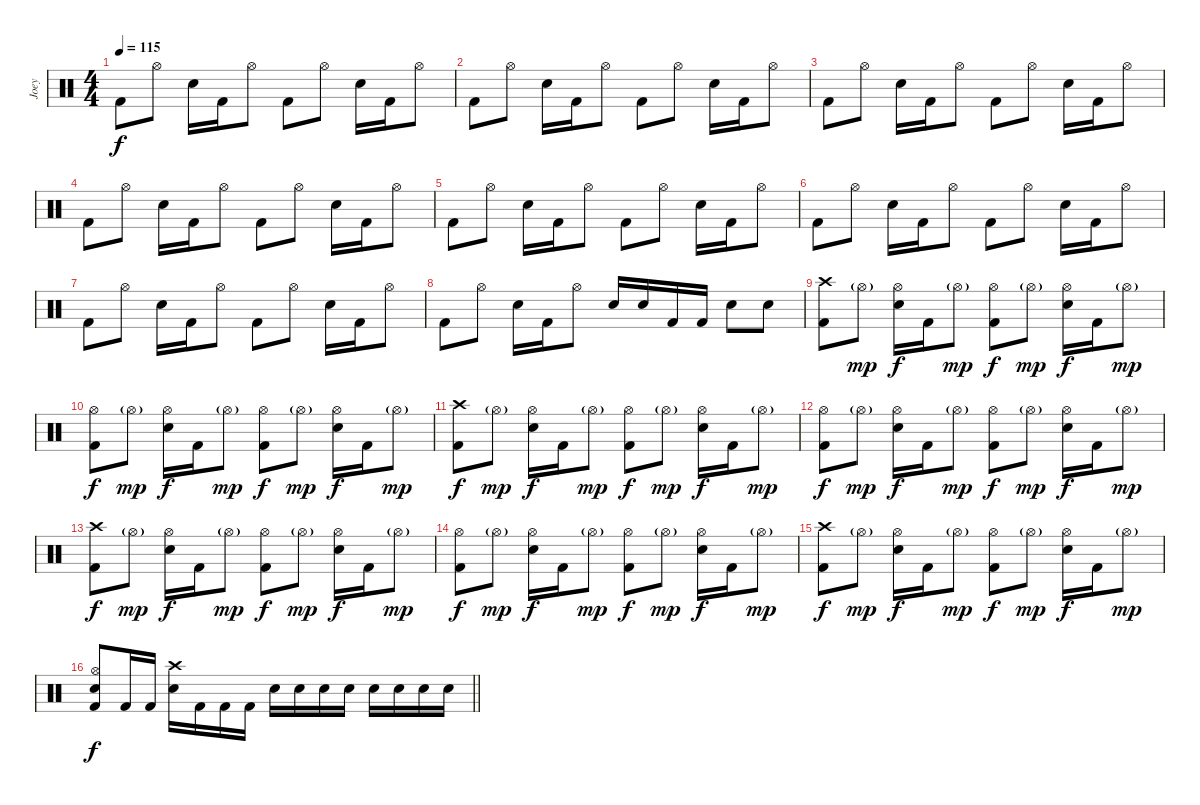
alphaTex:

\track ("Joey" "Joey") {instrument percussion}
\staff {score}
\articulation defaults
\ts (4 4)
\tempo 115
\clef neutral
\ks c "Kick (hit) 2".8{dy f} "Hi-Hat (open)".8 "Electric Snare (hit)".16 "Kick (hit) 2".16 "Hi-Hat (open)".8 "Kick (hit) 2".8 "Hi-Hat (open)".8 "Electric Snare (hit)".16 "Kick (hit) 2".16 "Hi-Hat (open)".8
|
"Kick (hit) 2".8 "Hi-Hat (open)".8 "Electric Snare (hit)".16 "Kick (hit) 2".16 "Hi-Hat (open)".8 "Kick (hit) 2".8 "Hi-Hat (open)".8 "Electric Snare (hit)".16 "Kick (hit) 2".16 "Hi-Hat (open)".8 |
"Kick (hit) 2".8 "Hi-Hat (open)".8 "Electric Snare (hit)".16 "Kick (hit) 2".16 "Hi-Hat (open)".8 "Kick (hit) 2".8 "Hi-Hat (open)".8 "Electric Snare (hit)".16 "Kick (hit) 2".16 "Hi-Hat (open)".8 |
"Kick (hit) 2".8 "Hi-Hat (open)".8 "Electric Snare (hit)".16 "Kick (hit) 2".16 "Hi-Hat (open)".8 "Kick (hit) 2".8 "Hi-Hat (open)".8 "Electric Snare (hit)".16 "Kick (hit) 2".16 "Hi-Hat (open)".8 |
"Kick (hit) 2".8 "Hi-Hat (open)".8 "Electric Snare (hit)".16 "Kick (hit) 2".16 "Hi-Hat (open)".8 "Kick (hit) 2".8 "Hi-Hat (open)".8 "Electric Snare (hit)".16 "Kick (hit) 2".16 "Hi-Hat (open)".8 |
"Kick (hit) 2".8 "Hi-Hat (open)".8 "Electric Snare (hit)".16 "Kick (hit) 2".16 "Hi-Hat (open)".8 "Kick (hit) 2".8 "Hi-Hat (open)".8 "Electric Snare (hit)".16 "Kick (hit) 2".16 "Hi-Hat (open)".8 |
"Kick (hit) 2".8 "Hi-Hat (open)".8 "Electric Snare (hit)".16 "Kick (hit) 2".16 "Hi-Hat (open)".8 "Kick (hit) 2".8 "Hi-Hat (open)".8 "Electric Snare (hit)".16 "Kick (hit) 2".16 "Hi-Hat (open)".8 |
"Kick (hit) 2".8 "Hi-Hat (open)".8 "Electric Snare (hit)".16 "Kick (hit) 2".16 "Hi-Hat (open)".8 "Electric Snare (hit)".16 "Electric Snare (hit)".16 "Kick (hit) 2".16 "Kick (hit) 2".16 "Electric Snare (hit)".8 "Electric Snare (hit)".8 |
("Crash high (hit)" "Kick (hit) 2").8 "Hi-Hat (open)"{g}.8{dy mp} ("Hi-Hat (open)" "Electric Snare (hit)").16{dy f} "Kick (hit) 2".16 "Hi-Hat (open)"{g}.8{dy mp} ("Hi-Hat (open)" "Kick (hit) 2").8{dy f} "Hi-Hat (open)"{g}.8{dy mp} ("Hi-Hat (open)" "Electric Snare (hit)").16{dy f} "Kick (hit) 2".16 "Hi-Hat (open)"{g}.8{dy mp} |
("Hi-Hat (open)" "Kick (hit) 2").8{dy f} "Hi-Hat (open)"{g}.8{dy mp} ("Hi-Hat (open)" "Electric Snare (hit)").16{dy f} "Kick (hit) 2".16 "Hi-Hat (open)"{g}.8{dy mp} ("Hi-Hat (open)" "Kick (hit) 2").8{dy f} "Hi-Hat (open)"{g}.8{dy mp} ("Hi-Hat (open)" "Electric Snare (hit)").16{dy f} "Kick (hit) 2".16 "Hi-Hat (open)"{g}.8{dy mp} |
("Crash high (hit)" "Kick (hit) 2").8{dy f} "Hi-Hat (open)"{g}.8{dy mp} ("Hi-Hat (open)" "Electric Snare (hit)").16{dy f} "Kick (hit) 2".16 "Hi-Hat (open)"{g}.8{dy mp} ("Hi-Hat (open)" "Kick (hit) 2").8{dy f} "Hi-Hat (open)"{g}.8{dy mp} ("Hi-Hat (open)" "Electric Snare (hit)").16{dy f} "Kick (hit) 2".16 "Hi-Hat (open)"{g}.8{dy mp} |
("Hi-Hat (open)" "Kick (hit) 2").8{dy f} "Hi-Hat (open)"{g}.8{dy mp} ("Hi-Hat (open)" "Electric Snare (hit)").16{dy f} "Kick (hit) 2".16 "Hi-Hat (open)"{g}.8{dy mp} ("Hi-Hat (open)" "Kick (hit) 2").8{dy f} "Hi-Hat (open)"{g}.8{dy mp} ("Hi-Hat (open)" "Electric Snare (hit)").16{dy f} "Kick (hit) 2".16 "Hi-Hat (open)"{g}.8{dy mp} |
("Crash high (hit)" "Kick (hit) 2").8{dy f} "Hi-Hat (open)"{g}.8{dy mp} ("Hi-Hat (open)" "Electric Snare (hit)").16{dy f} "Kick (hit) 2".16 "Hi-Hat (open)"{g}.8{dy mp} ("Hi-Hat (open)" "Kick (hit) 2").8{dy f} "Hi-Hat (open)"{g}.8{dy mp} ("Hi-Hat (open)" "Electric Snare (hit)").16{dy f} "Kick (hit) 2".16 "Hi-Hat (open)"{g}.8{dy mp} |
("Hi-Hat (open)" "Kick (hit) 2").8{dy f} "Hi-Hat (open)"{g}.8{dy mp} ("Hi-Hat (open)" "Electric Snare (hit)").16{dy f} "Kick (hit) 2".16 "Hi-Hat (open)"{g}.8{dy mp} ("Hi-Hat (open)" "Kick (hit) 2").8{dy f} "Hi-Hat (open)"{g}.8{dy mp} ("Hi-Hat (open)" "Electric Snare (hit)").16{dy f} "Kick (hit) 2".16 "Hi-Hat (open)"{g}.8{dy mp} |
("Crash high (hit)" "Kick (hit) 2").8{dy f} "Hi-Hat (open)"{g}.8{dy mp} ("Hi-Hat (open)" "Electric Snare (hit)").16{dy f} "Kick (hit) 2".16 "Hi-Hat (open)"{g}.8{dy mp} ("Hi-Hat (open)" "Kick (hit) 2").8{dy f} "Hi-Hat (open)"{g}.8{dy mp} ("Hi-Hat (open)" "Electric Snare (hit)").16{dy f} "Kick (hit) 2".16 "Hi-Hat (open)"{g}.8{dy mp} |
\barLineRight lightlight
("Hi-Hat (open)" "Electric Snare (hit)" "Kick (hit) 2").8{dy f} "Kick (hit) 2".16 "Kick (hit) 2".16 ("Crash high (hit)" "Electric Snare (hit)").16 "Kick (hit) 2".16 "Kick (hit) 2".16 "Kick (hit) 2".16 "Electric Snare (hit)".16 "Electric Snare (hit)".16 "Electric Snare (hit)".16 "Electric Snare (hit)".16 "Electric Snare (hit)".16 "Electric Snare (hit)".16 "Electric Snare (hit)".16 "Electric Snare (hit)".16
